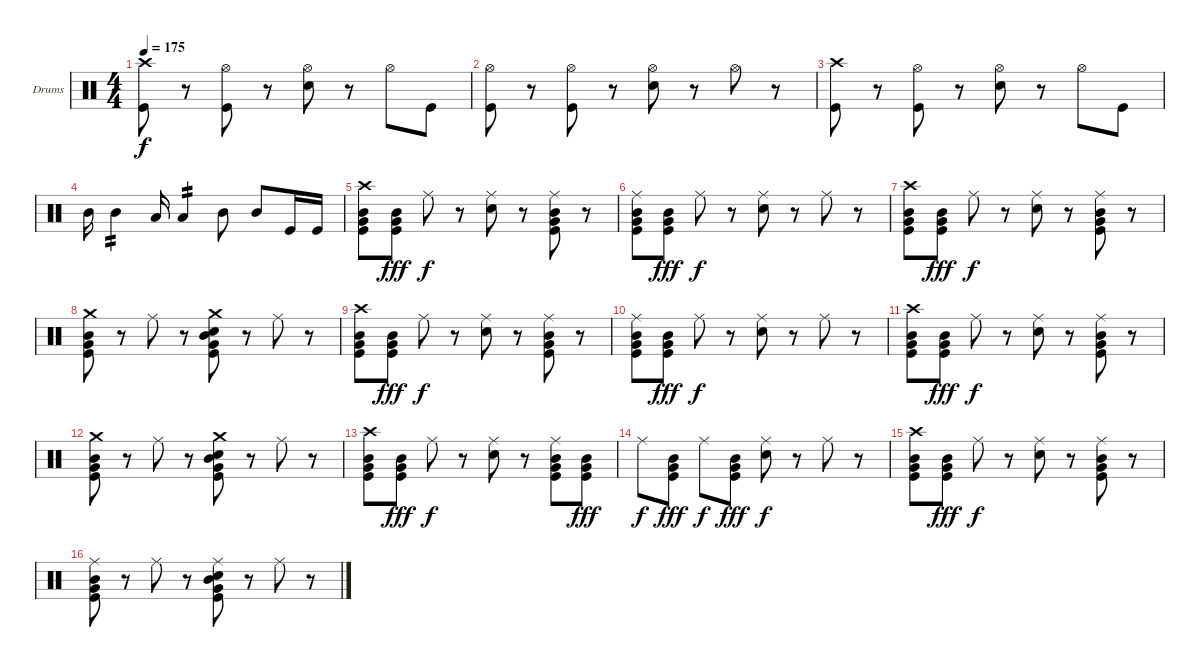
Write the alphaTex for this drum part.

\bracketExtendMode groupsimilarinstruments
\firstSystemTrackNameOrientation horizontal
\otherSystemsTrackNameOrientation horizontal
\track ("Drumkit" "Drums") {instrument percussion}
\staff {score}
\articulation defaults
\ts (4 4)
\tempo 175
\clef neutral
\ks c
("Crash high (hit)" "Kick (hit)").8{dy f} r.8 ("Hi-Hat (open)" "Kick (hit)").8 r.8 ("Hi-Hat (open)" "Snare (hit) 2").8 r.8 "Hi-Hat (open)".8 "Kick (hit)".8 |
("Hi-Hat (open)" "Kick (hit)").8 r.8 ("Hi-Hat (open)" "Kick (hit)").8 r.8 ("Hi-Hat (open)" "Snare (hit) 2").8 r.8 "Hi-Hat (open)".8 r.8 |
("Crash high (hit)" "Kick (hit)").8 r.8 ("Hi-Hat (open)" "Kick (hit)").8 r.8 ("Hi-Hat (open)" "Snare (hit) 2").8 r.8 "Hi-Hat (open)".8 "Kick (hit)".8 |
"Mid Tom (hit)".16 "Mid Tom (hit)".4{tp 2} "Low Tom (hit)".16 "Low Tom (hit)".4{tp 2} "Mid Tom (hit)".8 "Mid Tom (hit)".8 "Kick (hit)".16 "Kick (hit)".16 |
("Crash high (hit)" "Mid Tom (hit)" "Very Low Tom (hit)" "Kick (hit)").8 ("Mid Tom (hit)" "Very Low Tom (hit)" "Kick (hit)").8{dy fff} "Ride (middle)".8{dy f} r.8 ("Ride (middle)" "Snare (hit) 2").8 r.8 ("Ride (middle)" "Mid Tom (hit)" "Very Low Tom (hit)" "Kick (hit)").8 r.8 |
("Ride (middle)" "Mid Tom (hit)" "Very Low Tom (hit)" "Kick (hit)").8 ("Mid Tom (hit)" "Very Low Tom (hit)" "Kick (hit)").8{dy fff} "Ride (middle)".8{dy f} r.8 ("Ride (middle)" "Snare (hit) 2").8 r.8 "Ride (middle)".8 r.8 |
("Crash high (hit)" "Mid Tom (hit)" "Very Low Tom (hit)" "Kick (hit)").8 ("Mid Tom (hit)" "Very Low Tom (hit)" "Kick (hit)").8{dy fff} "Ride (middle)".8{dy f} r.8 ("Ride (middle)" "Snare (hit) 2").8 r.8 ("Ride (middle)" "Mid Tom (hit)" "Very Low Tom (hit)" "Kick (hit)").8 r.8 |
("Crash medium (hit)" "Mid Tom (hit)" "Very Low Tom (hit)" "Kick (hit)").8 r.8 "Ride (middle)".8 r.8 ("Crash medium (hit)" "Snare (hit) 2" "Mid Tom (hit)" "Very Low Tom (hit)" "Kick (hit)").8 r.8 "Ride (middle)".8 r.8 |
("Crash high (hit)" "Mid Tom (hit)" "Very Low Tom (hit)" "Kick (hit)").8 ("Mid Tom (hit)" "Very Low Tom (hit)" "Kick (hit)").8{dy fff} "Ride (middle)".8{dy f} r.8 ("Ride (middle)" "Snare (hit) 2").8 r.8 ("Ride (middle)" "Mid Tom (hit)" "Very Low Tom (hit)" "Kick (hit)").8 r.8 |
("Ride (middle)" "Mid Tom (hit)" "Very Low Tom (hit)" "Kick (hit)").8 ("Mid Tom (hit)" "Very Low Tom (hit)" "Kick (hit)").8{dy fff} "Ride (middle)".8{dy f} r.8 ("Ride (middle)" "Snare (hit) 2").8 r.8 "Ride (middle)".8 r.8 |
("Crash high (hit)" "Mid Tom (hit)" "Very Low Tom (hit)" "Kick (hit)").8 ("Mid Tom (hit)" "Very Low Tom (hit)" "Kick (hit)").8{dy fff} "Ride (middle)".8{dy f} r.8 ("Ride (middle)" "Snare (hit) 2").8 r.8 ("Ride (middle)" "Mid Tom (hit)" "Very Low Tom (hit)" "Kick (hit)").8 r.8 |
("Crash medium (hit)" "Mid Tom (hit)" "Very Low Tom (hit)" "Kick (hit)").8 r.8 "Ride (middle)".8 r.8 ("Crash medium (hit)" "Snare (hit) 2" "Mid Tom (hit)" "Very Low Tom (hit)" "Kick (hit)").8 r.8 "Ride (middle)".8 r.8 |
("Crash high (hit)" "Mid Tom (hit)" "Very Low Tom (hit)" "Kick (hit)").8 ("Mid Tom (hit)" "Very Low Tom (hit)" "Kick (hit)").8{dy fff} "Ride (middle)".8{dy f} r.8 ("Ride (middle)" "Snare (hit) 2").8 r.8 ("Ride (middle)" "Mid Tom (hit)" "Very Low Tom (hit)" "Kick (hit)").8 ("Mid Tom (hit)" "Very Low Tom (hit)" "Kick (hit)").8{dy fff} |
"Ride (middle)".8{dy f} ("Mid Tom (hit)" "Very Low Tom (hit)" "Kick (hit)").8{dy fff} "Ride (middle)".8{dy f} ("Mid Tom (hit)" "Kick (hit)" "Very Low Tom (hit)").8{dy fff} ("Ride (middle)" "Snare (hit) 2").8{dy f} r.8 "Ride (middle)".8 r.8 |
("Crash high (hit)" "Mid Tom (hit)" "Very Low Tom (hit)" "Kick (hit)").8 ("Mid Tom (hit)" "Very Low Tom (hit)" "Kick (hit)").8{dy fff} "Ride (middle)".8{dy f} r.8 ("Ride (middle)" "Snare (hit) 2").8 r.8 ("Ride (middle)" "Mid Tom (hit)" "Very Low Tom (hit)" "Kick (hit)").8 r.8 |
("Ride (middle)" "Mid Tom (hit)" "Very Low Tom (hit)" "Kick (hit)").8 r.8 "Ride (middle)".8 r.8 ("Ride (middle)" "Snare (hit) 2" "Mid Tom (hit)" "Very Low Tom (hit)" "Kick (hit)").8 r.8 "Ride (middle)".8 r.8
